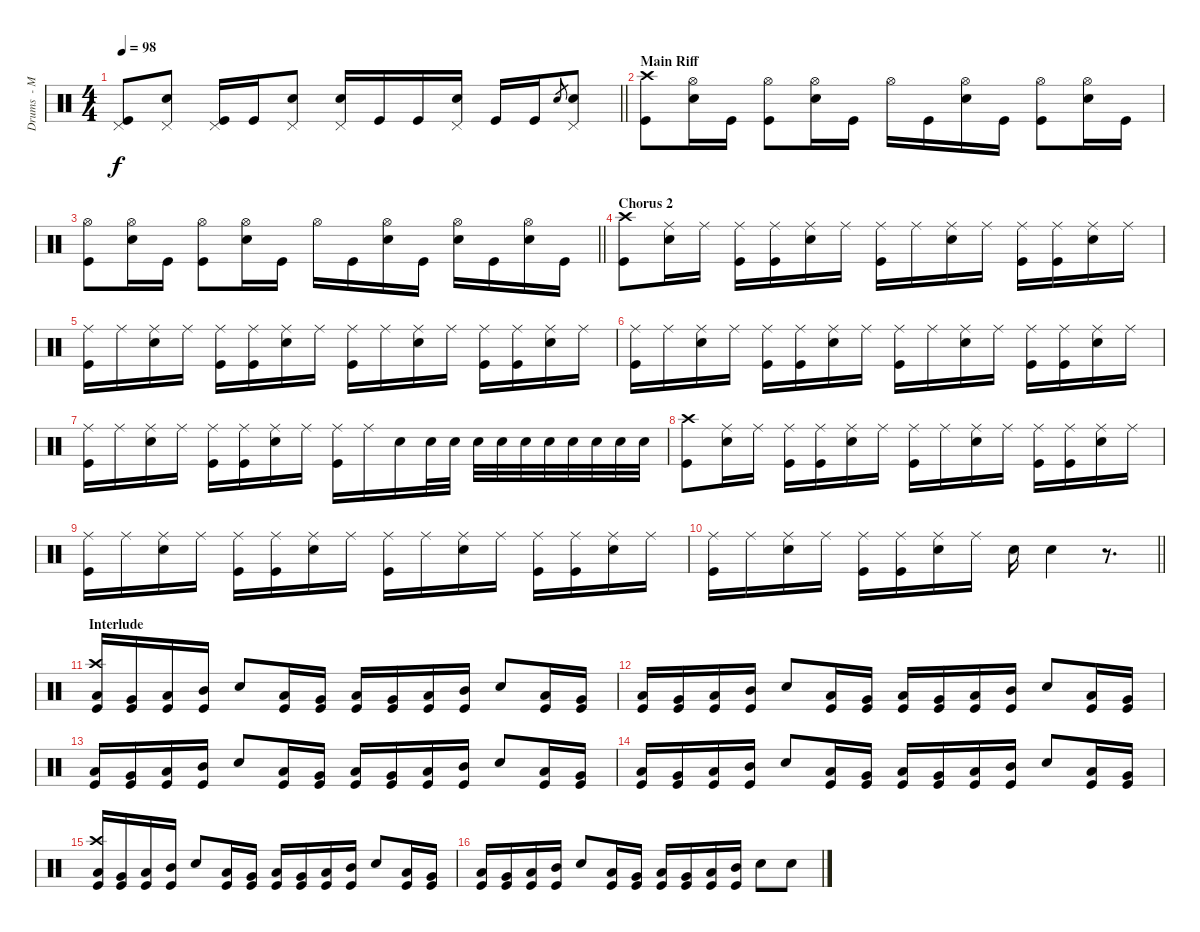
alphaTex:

\track ("Drums  - Mikko" "Drums  - M") {instrument percussion}
\staff {score}
\articulation defaults
\ts (4 4)
\tempo 98
\clef neutral
\barLineRight lightlight
\ks c
("Pedal Hi-Hat (hit)" "Kick (hit)").8{dy f} ("Pedal Hi-Hat (hit)" "Electric Snare (hit)").8 ("Pedal Hi-Hat (hit)" "Kick (hit)").16 "Kick (hit)".16 ("Pedal Hi-Hat (hit)" "Electric Snare (hit)").8 ("Pedal Hi-Hat (hit)" "Electric Snare (hit)").16 "Kick (hit)".16 "Kick (hit)".16 ("Pedal Hi-Hat (hit)" "Electric Snare (hit)").16 "Kick (hit)".16 "Kick (hit)".16 "Electric Snare (hit)".8{gr} ("Pedal Hi-Hat (hit)" "Electric Snare (hit)").8 |
\section ("" "Main Riff")
("Crash high (hit)" "Kick (hit)").8 ("Hi-Hat (open)" "Electric Snare (hit)").16 "Kick (hit)".16 ("Hi-Hat (open)" "Kick (hit)").8 ("Hi-Hat (open)" "Electric Snare (hit)").16 "Kick (hit)".16 "Hi-Hat (open)".16 "Kick (hit)".16 ("Hi-Hat (open)" "Electric Snare (hit)").16 "Kick (hit)".16 ("Hi-Hat (open)" "Kick (hit)").8 ("Hi-Hat (open)" "Electric Snare (hit)").16 "Kick (hit)".16 |
\barLineRight lightlight
("Hi-Hat (open)" "Kick (hit)").8 ("Hi-Hat (open)" "Electric Snare (hit)").16 "Kick (hit)".16 ("Hi-Hat (open)" "Kick (hit)").8 ("Hi-Hat (open)" "Electric Snare (hit)").16 "Kick (hit)".16 "Hi-Hat (open)".16 "Kick (hit)".16 ("Hi-Hat (open)" "Electric Snare (hit)").16 "Kick (hit)".16 ("Hi-Hat (open)" "Electric Snare (hit)").16 "Kick (hit)".16 ("Hi-Hat (open)" "Electric Snare (hit)").16 "Kick (hit)".16 |
\section ("" "Chorus 2")
("Crash high (hit)" "Kick (hit)").8 ("Ride (middle)" "Electric Snare (hit)").16 "Ride (middle)".16 ("Ride (middle)" "Kick (hit)").16 ("Ride (middle)" "Kick (hit)").16 ("Ride (middle)" "Electric Snare (hit)").16 "Ride (middle)".16 ("Ride (middle)" "Kick (hit)").16 "Ride (middle)".16 ("Ride (middle)" "Electric Snare (hit)").16 "Ride (middle)".16 ("Ride (middle)" "Kick (hit)").16 ("Ride (middle)" "Kick (hit)").16 ("Ride (middle)" "Electric Snare (hit)").16 "Ride (middle)".16 |
("Ride (middle)" "Kick (hit)").16 "Ride (middle)".16 ("Ride (middle)" "Electric Snare (hit)").16 "Ride (middle)".16 ("Ride (middle)" "Kick (hit)").16 ("Ride (middle)" "Kick (hit)").16 ("Ride (middle)" "Electric Snare (hit)").16 "Ride (middle)".16 ("Ride (middle)" "Kick (hit)").16 "Ride (middle)".16 ("Ride (middle)" "Electric Snare (hit)").16 "Ride (middle)".16 ("Ride (middle)" "Kick (hit)").16 ("Ride (middle)" "Kick (hit)").16 ("Ride (middle)" "Electric Snare (hit)").16 "Ride (middle)".16 |
("Ride (middle)" "Kick (hit)").16 "Ride (middle)".16 ("Ride (middle)" "Electric Snare (hit)").16 "Ride (middle)".16 ("Ride (middle)" "Kick (hit)").16 ("Ride (middle)" "Kick (hit)").16 ("Ride (middle)" "Electric Snare (hit)").16 "Ride (middle)".16 ("Ride (middle)" "Kick (hit)").16 "Ride (middle)".16 ("Ride (middle)" "Electric Snare (hit)").16 "Ride (middle)".16 ("Ride (middle)" "Kick (hit)").16 ("Ride (middle)" "Kick (hit)").16 ("Ride (middle)" "Electric Snare (hit)").16 "Ride (middle)".16 |
("Ride (middle)" "Kick (hit)").16 "Ride (middle)".16 ("Ride (middle)" "Electric Snare (hit)").16 "Ride (middle)".16 ("Ride (middle)" "Kick (hit)").16 ("Ride (middle)" "Kick (hit)").16 ("Ride (middle)" "Electric Snare (hit)").16 "Ride (middle)".16 ("Ride (middle)" "Kick (hit)").16 "Ride (middle)".16 "Electric Snare (hit)".16 "Electric Snare (hit)".32 "Electric Snare (hit)".32 "Electric Snare (hit)".32 "Electric Snare (hit)".32 "Electric Snare (hit)".32 "Electric Snare (hit)".32 "Electric Snare (hit)".32 "Electric Snare (hit)".32 "Electric Snare (hit)".32 "Electric Snare (hit)".32 |
("Crash high (hit)" "Kick (hit)").8 ("Ride (middle)" "Electric Snare (hit)").16 "Ride (middle)".16 ("Ride (middle)" "Kick (hit)").16 ("Ride (middle)" "Kick (hit)").16 ("Ride (middle)" "Electric Snare (hit)").16 "Ride (middle)".16 ("Ride (middle)" "Kick (hit)").16 "Ride (middle)".16 ("Ride (middle)" "Electric Snare (hit)").16 "Ride (middle)".16 ("Ride (middle)" "Kick (hit)").16 ("Ride (middle)" "Kick (hit)").16 ("Ride (middle)" "Electric Snare (hit)").16 "Ride (middle)".16 |
("Ride (middle)" "Kick (hit)").16 "Ride (middle)".16 ("Ride (middle)" "Electric Snare (hit)").16 "Ride (middle)".16 ("Ride (middle)" "Kick (hit)").16 ("Ride (middle)" "Kick (hit)").16 ("Ride (middle)" "Electric Snare (hit)").16 "Ride (middle)".16 ("Ride (middle)" "Kick (hit)").16 "Ride (middle)".16 ("Ride (middle)" "Electric Snare (hit)").16 "Ride (middle)".16 ("Ride (middle)" "Kick (hit)").16 ("Ride (middle)" "Kick (hit)").16 ("Ride (middle)" "Electric Snare (hit)").16 "Ride (middle)".16 |
\barLineRight lightlight
("Ride (middle)" "Kick (hit)").16 "Ride (middle)".16 ("Ride (middle)" "Electric Snare (hit)").16 "Ride (middle)".16 ("Ride (middle)" "Kick (hit)").16 ("Ride (middle)" "Kick (hit)").16 ("Ride (middle)" "Electric Snare (hit)").16 "Ride (middle)".16 "Electric Snare (hit)".16 "Electric Snare (hit)".4 r.8{d} |
\section ("" "Interlude")
("Crash high (hit)" "Low Floor Tom (hit)" "Kick (hit)").16 ("Very Low Tom (hit)" "Kick (hit)").16 ("Low Tom (hit)" "Kick (hit)").16 ("Mid Tom (hit)" "Kick (hit)").16 "Electric Snare (hit)".8 ("Low Floor Tom (hit)" "Kick (hit)").16 ("Very Low Tom (hit)" "Kick (hit)").16 ("Low Floor Tom (hit)" "Kick (hit)").16 ("Very Low Tom (hit)" "Kick (hit)").16 ("Low Tom (hit)" "Kick (hit)").16 ("Mid Tom (hit)" "Kick (hit)").16 "Electric Snare (hit)".8 ("Low Floor Tom (hit)" "Kick (hit)").16 ("Very Low Tom (hit)" "Kick (hit)").16 |
("Low Floor Tom (hit)" "Kick (hit)").16 ("Very Low Tom (hit)" "Kick (hit)").16 ("Low Tom (hit)" "Kick (hit)").16 ("Mid Tom (hit)" "Kick (hit)").16 "Electric Snare (hit)".8 ("Low Floor Tom (hit)" "Kick (hit)").16 ("Very Low Tom (hit)" "Kick (hit)").16 ("Low Floor Tom (hit)" "Kick (hit)").16 ("Very Low Tom (hit)" "Kick (hit)").16 ("Low Tom (hit)" "Kick (hit)").16 ("Mid Tom (hit)" "Kick (hit)").16 "Electric Snare (hit)".8 ("Low Floor Tom (hit)" "Kick (hit)").16 ("Very Low Tom (hit)" "Kick (hit)").16 |
("Low Floor Tom (hit)" "Kick (hit)").16 ("Very Low Tom (hit)" "Kick (hit)").16 ("Low Tom (hit)" "Kick (hit)").16 ("Mid Tom (hit)" "Kick (hit)").16 "Electric Snare (hit)".8 ("Low Floor Tom (hit)" "Kick (hit)").16 ("Very Low Tom (hit)" "Kick (hit)").16 ("Low Floor Tom (hit)" "Kick (hit)").16 ("Very Low Tom (hit)" "Kick (hit)").16 ("Low Tom (hit)" "Kick (hit)").16 ("Mid Tom (hit)" "Kick (hit)").16 "Electric Snare (hit)".8 ("Low Floor Tom (hit)" "Kick (hit)").16 ("Very Low Tom (hit)" "Kick (hit)").16 |
("Low Floor Tom (hit)" "Kick (hit)").16 ("Very Low Tom (hit)" "Kick (hit)").16 ("Low Tom (hit)" "Kick (hit)").16 ("Mid Tom (hit)" "Kick (hit)").16 "Electric Snare (hit)".8 ("Low Floor Tom (hit)" "Kick (hit)").16 ("Very Low Tom (hit)" "Kick (hit)").16 ("Low Floor Tom (hit)" "Kick (hit)").16 ("Very Low Tom (hit)" "Kick (hit)").16 ("Low Tom (hit)" "Kick (hit)").16 ("Mid Tom (hit)" "Kick (hit)").16 "Electric Snare (hit)".8 ("Low Floor Tom (hit)" "Kick (hit)").16 ("Very Low Tom (hit)" "Kick (hit)").16 |
("Crash high (hit)" "Low Floor Tom (hit)" "Kick (hit)").16 ("Very Low Tom (hit)" "Kick (hit)").16 ("Low Tom (hit)" "Kick (hit)").16 ("Mid Tom (hit)" "Kick (hit)").16 "Electric Snare (hit)".8 ("Low Floor Tom (hit)" "Kick (hit)").16 ("Very Low Tom (hit)" "Kick (hit)").16 ("Low Floor Tom (hit)" "Kick (hit)").16 ("Very Low Tom (hit)" "Kick (hit)").16 ("Low Tom (hit)" "Kick (hit)").16 ("Mid Tom (hit)" "Kick (hit)").16 "Electric Snare (hit)".8 ("Low Floor Tom (hit)" "Kick (hit)").16 ("Very Low Tom (hit)" "Kick (hit)").16 |
("Low Floor Tom (hit)" "Kick (hit)").16 ("Very Low Tom (hit)" "Kick (hit)").16 ("Low Tom (hit)" "Kick (hit)").16 ("Mid Tom (hit)" "Kick (hit)").16 "Electric Snare (hit)".8 ("Low Floor Tom (hit)" "Kick (hit)").16 ("Very Low Tom (hit)" "Kick (hit)").16 ("Low Floor Tom (hit)" "Kick (hit)").16 ("Very Low Tom (hit)" "Kick (hit)").16 ("Low Tom (hit)" "Kick (hit)").16 ("Mid Tom (hit)" "Kick (hit)").16 "Electric Snare (hit)".8 "Electric Snare (hit)".8
